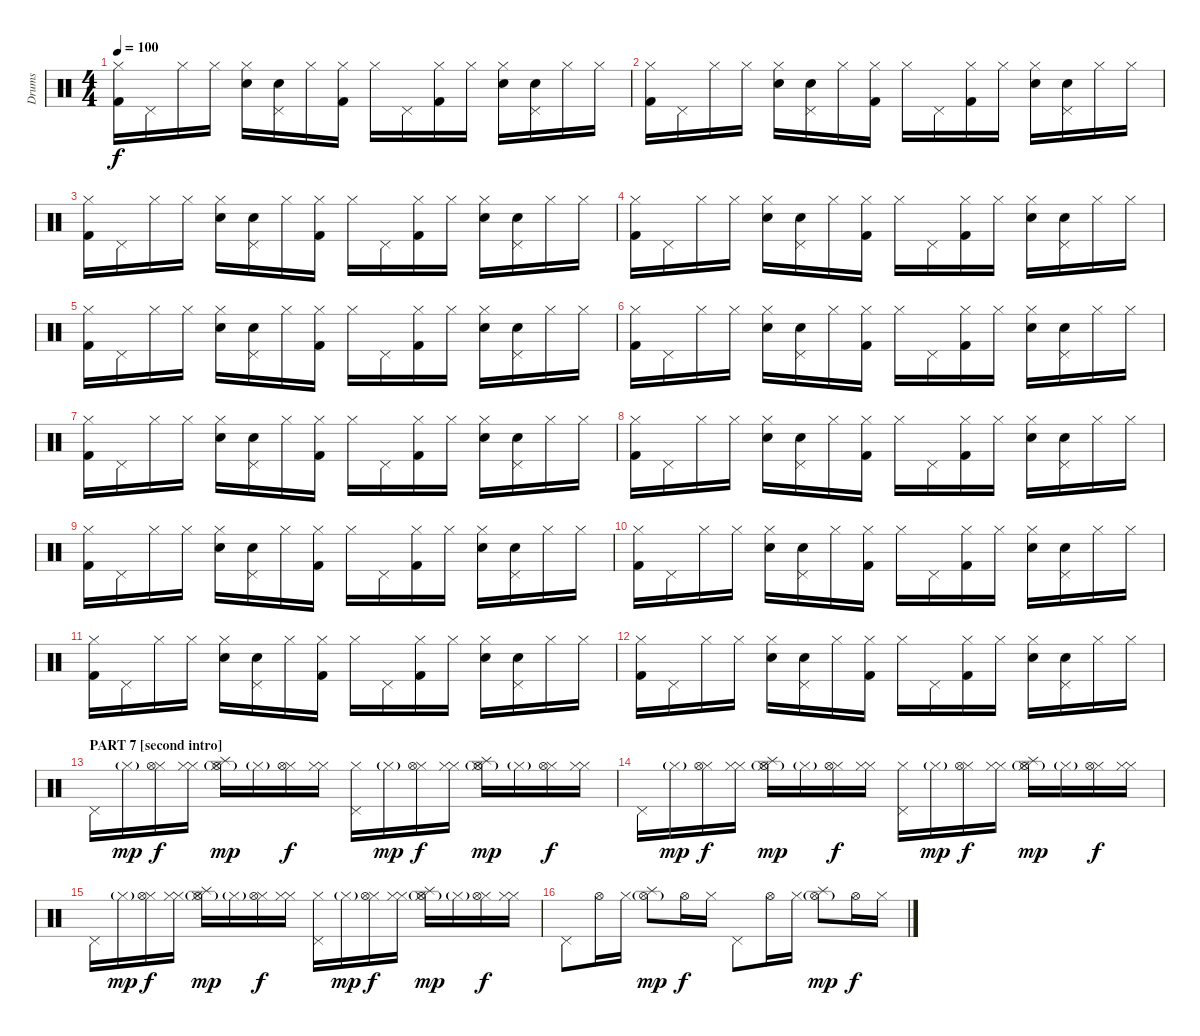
\track ("Drums" "Drums") {instrument percussion}
\staff {score}
\articulation defaults
\ts (4 4)
\tempo 100
\clef neutral
\ks c
("Kick (hit) 2" "Hi-Hat (closed)").16{dy f} "Pedal Hi-Hat (hit)".16 "Hi-Hat (closed)".16 "Hi-Hat (closed)".16 ("Snare (hit) 2" "Hi-Hat (closed)").16 ("Snare (hit) 2" "Pedal Hi-Hat (hit)").16 "Hi-Hat (closed)".16 ("Kick (hit) 2" "Hi-Hat (closed)").16 "Hi-Hat (closed)".16 "Pedal Hi-Hat (hit)".16 ("Kick (hit) 2" "Hi-Hat (closed)").16 "Hi-Hat (closed)".16 ("Snare (hit) 2" "Hi-Hat (closed)").16 ("Snare (hit) 2" "Pedal Hi-Hat (hit)").16 "Hi-Hat (closed)".16 "Hi-Hat (closed)".16 |
("Kick (hit) 2" "Hi-Hat (closed)").16 "Pedal Hi-Hat (hit)".16 "Hi-Hat (closed)".16 "Hi-Hat (closed)".16 ("Snare (hit) 2" "Hi-Hat (closed)").16 ("Snare (hit) 2" "Pedal Hi-Hat (hit)").16 "Hi-Hat (closed)".16 ("Kick (hit) 2" "Hi-Hat (closed)").16 "Hi-Hat (closed)".16 "Pedal Hi-Hat (hit)".16 ("Kick (hit) 2" "Hi-Hat (closed)").16 "Hi-Hat (closed)".16 ("Snare (hit) 2" "Hi-Hat (closed)").16 ("Snare (hit) 2" "Pedal Hi-Hat (hit)").16 "Hi-Hat (closed)".16 "Hi-Hat (closed)".16 |
("Kick (hit) 2" "Hi-Hat (closed)").16 "Pedal Hi-Hat (hit)".16 "Hi-Hat (closed)".16 "Hi-Hat (closed)".16 ("Snare (hit) 2" "Hi-Hat (closed)").16 ("Snare (hit) 2" "Pedal Hi-Hat (hit)").16 "Hi-Hat (closed)".16 ("Kick (hit) 2" "Hi-Hat (closed)").16 "Hi-Hat (closed)".16 "Pedal Hi-Hat (hit)".16 ("Kick (hit) 2" "Hi-Hat (closed)").16 "Hi-Hat (closed)".16 ("Snare (hit) 2" "Hi-Hat (closed)").16 ("Snare (hit) 2" "Pedal Hi-Hat (hit)").16 "Hi-Hat (closed)".16 "Hi-Hat (closed)".16 |
("Kick (hit) 2" "Hi-Hat (closed)").16 "Pedal Hi-Hat (hit)".16 "Hi-Hat (closed)".16 "Hi-Hat (closed)".16 ("Snare (hit) 2" "Hi-Hat (closed)").16 ("Snare (hit) 2" "Pedal Hi-Hat (hit)").16 "Hi-Hat (closed)".16 ("Kick (hit) 2" "Hi-Hat (closed)").16 "Hi-Hat (closed)".16 "Pedal Hi-Hat (hit)".16 ("Kick (hit) 2" "Hi-Hat (closed)").16 "Hi-Hat (closed)".16 ("Snare (hit) 2" "Hi-Hat (closed)").16 ("Snare (hit) 2" "Pedal Hi-Hat (hit)").16 "Hi-Hat (closed)".16 "Hi-Hat (closed)".16 |
("Kick (hit) 2" "Hi-Hat (closed)").16 "Pedal Hi-Hat (hit)".16 "Hi-Hat (closed)".16 "Hi-Hat (closed)".16 ("Snare (hit) 2" "Hi-Hat (closed)").16 ("Snare (hit) 2" "Pedal Hi-Hat (hit)").16 "Hi-Hat (closed)".16 ("Kick (hit) 2" "Hi-Hat (closed)").16 "Hi-Hat (closed)".16 "Pedal Hi-Hat (hit)".16 ("Kick (hit) 2" "Hi-Hat (closed)").16 "Hi-Hat (closed)".16 ("Snare (hit) 2" "Hi-Hat (closed)").16 ("Snare (hit) 2" "Pedal Hi-Hat (hit)").16 "Hi-Hat (closed)".16 "Hi-Hat (closed)".16 |
("Kick (hit) 2" "Hi-Hat (closed)").16 "Pedal Hi-Hat (hit)".16 "Hi-Hat (closed)".16 "Hi-Hat (closed)".16 ("Snare (hit) 2" "Hi-Hat (closed)").16 ("Snare (hit) 2" "Pedal Hi-Hat (hit)").16 "Hi-Hat (closed)".16 ("Kick (hit) 2" "Hi-Hat (closed)").16 "Hi-Hat (closed)".16 "Pedal Hi-Hat (hit)".16 ("Kick (hit) 2" "Hi-Hat (closed)").16 "Hi-Hat (closed)".16 ("Snare (hit) 2" "Hi-Hat (closed)").16 ("Snare (hit) 2" "Pedal Hi-Hat (hit)").16 "Hi-Hat (closed)".16 "Hi-Hat (closed)".16 |
("Kick (hit) 2" "Hi-Hat (closed)").16 "Pedal Hi-Hat (hit)".16 "Hi-Hat (closed)".16 "Hi-Hat (closed)".16 ("Snare (hit) 2" "Hi-Hat (closed)").16 ("Snare (hit) 2" "Pedal Hi-Hat (hit)").16 "Hi-Hat (closed)".16 ("Kick (hit) 2" "Hi-Hat (closed)").16 "Hi-Hat (closed)".16 "Pedal Hi-Hat (hit)".16 ("Kick (hit) 2" "Hi-Hat (closed)").16 "Hi-Hat (closed)".16 ("Snare (hit) 2" "Hi-Hat (closed)").16 ("Snare (hit) 2" "Pedal Hi-Hat (hit)").16 "Hi-Hat (closed)".16 "Hi-Hat (closed)".16 |
("Kick (hit) 2" "Hi-Hat (closed)").16 "Pedal Hi-Hat (hit)".16 "Hi-Hat (closed)".16 "Hi-Hat (closed)".16 ("Snare (hit) 2" "Hi-Hat (closed)").16 ("Snare (hit) 2" "Pedal Hi-Hat (hit)").16 "Hi-Hat (closed)".16 ("Kick (hit) 2" "Hi-Hat (closed)").16 "Hi-Hat (closed)".16 "Pedal Hi-Hat (hit)".16 ("Kick (hit) 2" "Hi-Hat (closed)").16 "Hi-Hat (closed)".16 ("Snare (hit) 2" "Hi-Hat (closed)").16 ("Snare (hit) 2" "Pedal Hi-Hat (hit)").16 "Hi-Hat (closed)".16 "Hi-Hat (closed)".16 |
("Kick (hit) 2" "Hi-Hat (closed)").16 "Pedal Hi-Hat (hit)".16 "Hi-Hat (closed)".16 "Hi-Hat (closed)".16 ("Snare (hit) 2" "Hi-Hat (closed)").16 ("Snare (hit) 2" "Pedal Hi-Hat (hit)").16 "Hi-Hat (closed)".16 ("Kick (hit) 2" "Hi-Hat (closed)").16 "Hi-Hat (closed)".16 "Pedal Hi-Hat (hit)".16 ("Kick (hit) 2" "Hi-Hat (closed)").16 "Hi-Hat (closed)".16 ("Snare (hit) 2" "Hi-Hat (closed)").16 ("Snare (hit) 2" "Pedal Hi-Hat (hit)").16 "Hi-Hat (closed)".16 "Hi-Hat (closed)".16 |
("Kick (hit) 2" "Hi-Hat (closed)").16 "Pedal Hi-Hat (hit)".16 "Hi-Hat (closed)".16 "Hi-Hat (closed)".16 ("Snare (hit) 2" "Hi-Hat (closed)").16 ("Snare (hit) 2" "Pedal Hi-Hat (hit)").16 "Hi-Hat (closed)".16 ("Kick (hit) 2" "Hi-Hat (closed)").16 "Hi-Hat (closed)".16 "Pedal Hi-Hat (hit)".16 ("Kick (hit) 2" "Hi-Hat (closed)").16 "Hi-Hat (closed)".16 ("Snare (hit) 2" "Hi-Hat (closed)").16 ("Snare (hit) 2" "Pedal Hi-Hat (hit)").16 "Hi-Hat (closed)".16 "Hi-Hat (closed)".16 |
("Kick (hit) 2" "Hi-Hat (closed)").16 "Pedal Hi-Hat (hit)".16 "Hi-Hat (closed)".16 "Hi-Hat (closed)".16 ("Snare (hit) 2" "Hi-Hat (closed)").16 ("Snare (hit) 2" "Pedal Hi-Hat (hit)").16 "Hi-Hat (closed)".16 ("Kick (hit) 2" "Hi-Hat (closed)").16 "Hi-Hat (closed)".16 "Pedal Hi-Hat (hit)".16 ("Kick (hit) 2" "Hi-Hat (closed)").16 "Hi-Hat (closed)".16 ("Snare (hit) 2" "Hi-Hat (closed)").16 ("Snare (hit) 2" "Pedal Hi-Hat (hit)").16 "Hi-Hat (closed)".16 "Hi-Hat (closed)".16 |
("Kick (hit) 2" "Hi-Hat (closed)").16 "Pedal Hi-Hat (hit)".16 "Hi-Hat (closed)".16 "Hi-Hat (closed)".16 ("Snare (hit) 2" "Hi-Hat (closed)").16 ("Snare (hit) 2" "Pedal Hi-Hat (hit)").16 "Hi-Hat (closed)".16 ("Kick (hit) 2" "Hi-Hat (closed)").16 "Hi-Hat (closed)".16 "Pedal Hi-Hat (hit)".16 ("Kick (hit) 2" "Hi-Hat (closed)").16 "Hi-Hat (closed)".16 ("Snare (hit) 2" "Hi-Hat (closed)").16 ("Snare (hit) 2" "Pedal Hi-Hat (hit)").16 "Hi-Hat (closed)".16 "Hi-Hat (closed)".16 |
\section ("" "PART 7 [second intro]")
"Pedal Hi-Hat (hit)".16 "Hi-Hat (closed)"{g}.16{dy mp} ("Hi-Hat (closed)" "Hi-Hat (open)").16{dy f} ("Hi-Hat (closed)" "Hi-Hat (closed)").16 ("Hi-Hat (closed)" "Hi-Hat (open)"{g} "Splash (hit)").16{dy mp} "Hi-Hat (closed)"{g}.16 ("Hi-Hat (closed)" "Hi-Hat (open)").16{dy f} ("Hi-Hat (closed)" "Hi-Hat (closed)").16 ("Hi-Hat (closed)" "Pedal Hi-Hat (hit)").16 "Hi-Hat (closed)"{g}.16{dy mp} ("Hi-Hat (closed)" "Hi-Hat (open)").16{dy f} ("Hi-Hat (closed)" "Hi-Hat (closed)").16 ("Hi-Hat (closed)" "Hi-Hat (open)"{g} "Splash (hit)").16{dy mp} "Hi-Hat (closed)"{g}.16 ("Hi-Hat (closed)" "Hi-Hat (open)").16{dy f} ("Hi-Hat (closed)" "Hi-Hat (closed)").16 |
"Pedal Hi-Hat (hit)".16 "Hi-Hat (closed)"{g}.16{dy mp} ("Hi-Hat (closed)" "Hi-Hat (open)").16{dy f} ("Hi-Hat (closed)" "Hi-Hat (closed)").16 ("Hi-Hat (closed)" "Hi-Hat (open)"{g} "Splash (hit)").16{dy mp} "Hi-Hat (closed)"{g}.16 ("Hi-Hat (closed)" "Hi-Hat (open)").16{dy f} ("Hi-Hat (closed)" "Hi-Hat (closed)").16 ("Hi-Hat (closed)" "Pedal Hi-Hat (hit)").16 "Hi-Hat (closed)"{g}.16{dy mp} ("Hi-Hat (closed)" "Hi-Hat (open)").16{dy f} ("Hi-Hat (closed)" "Hi-Hat (closed)").16 ("Hi-Hat (closed)" "Hi-Hat (open)"{g} "Splash (hit)").16{dy mp} "Hi-Hat (closed)"{g}.16 ("Hi-Hat (closed)" "Hi-Hat (open)").16{dy f} ("Hi-Hat (closed)" "Hi-Hat (closed)").16 |
"Pedal Hi-Hat (hit)".16 "Hi-Hat (closed)"{g}.16{dy mp} ("Hi-Hat (closed)" "Hi-Hat (open)").16{dy f} ("Hi-Hat (closed)" "Hi-Hat (closed)").16 ("Hi-Hat (closed)" "Hi-Hat (open)"{g} "Splash (hit)").16{dy mp} "Hi-Hat (closed)"{g}.16 ("Hi-Hat (closed)" "Hi-Hat (open)").16{dy f} ("Hi-Hat (closed)" "Hi-Hat (closed)").16 ("Hi-Hat (closed)" "Pedal Hi-Hat (hit)").16 "Hi-Hat (closed)"{g}.16{dy mp} ("Hi-Hat (closed)" "Hi-Hat (open)").16{dy f} ("Hi-Hat (closed)" "Hi-Hat (closed)").16 ("Hi-Hat (closed)" "Hi-Hat (open)"{g} "Splash (hit)").16{dy mp} "Hi-Hat (closed)"{g}.16 ("Hi-Hat (closed)" "Hi-Hat (open)").16{dy f} ("Hi-Hat (closed)" "Hi-Hat (closed)").16 |
"Pedal Hi-Hat (hit)".8 "Hi-Hat (open)".16 "Hi-Hat (closed)".16 ("Hi-Hat (open)"{g} "Splash (hit)").8{dy mp} "Hi-Hat (open)".16{dy f} "Hi-Hat (closed)".16 "Pedal Hi-Hat (hit)".8 "Hi-Hat (open)".16 "Hi-Hat (closed)".16 ("Hi-Hat (open)"{g} "Splash (hit)").8{dy mp} "Hi-Hat (open)".16{dy f} "Hi-Hat (closed)".16
